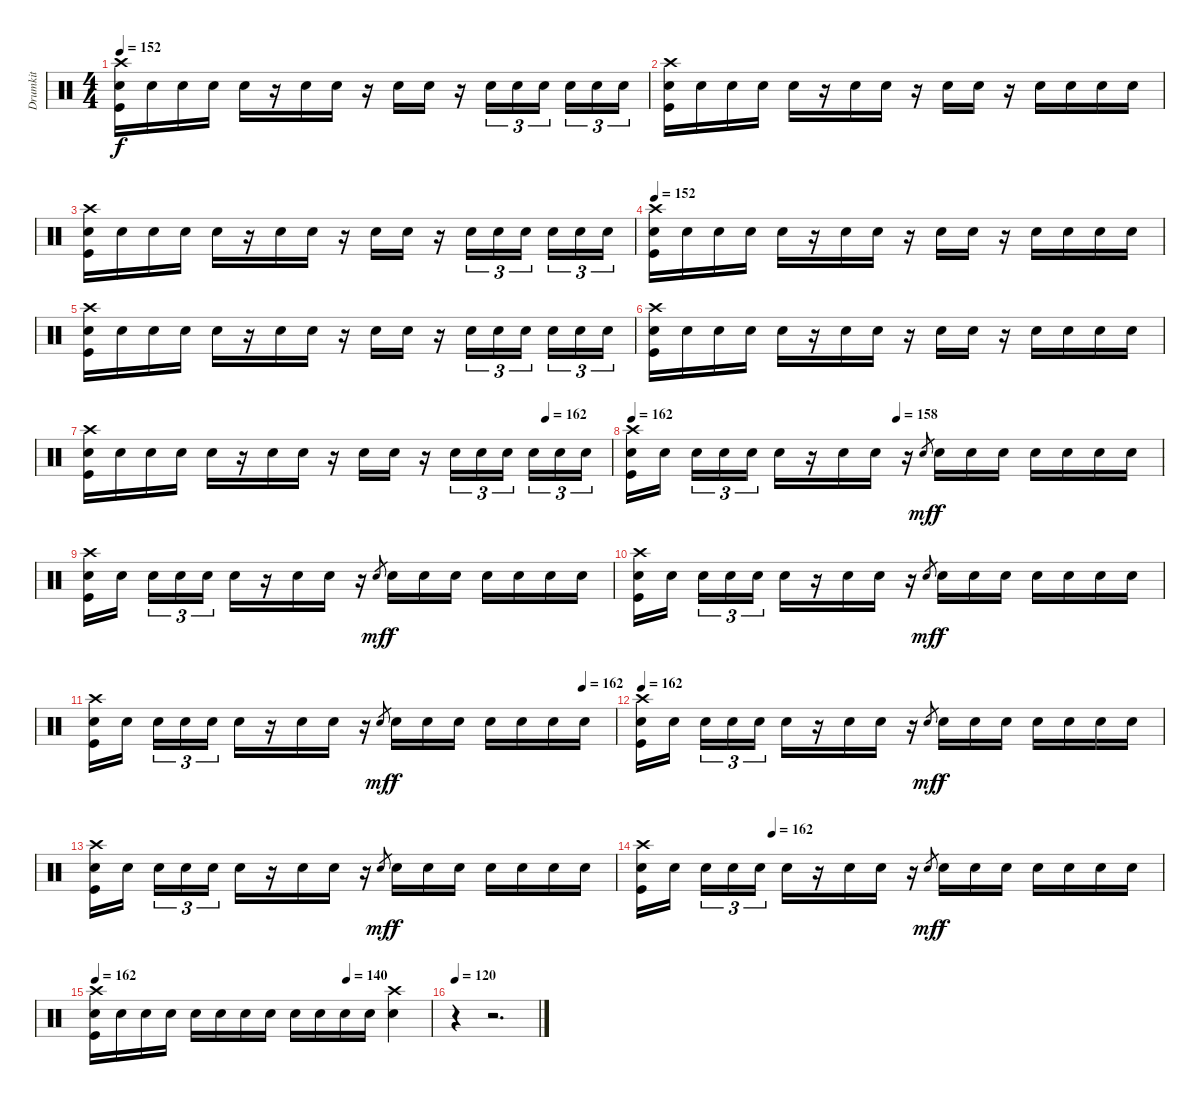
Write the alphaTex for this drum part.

\track ("Drumkit" "Drumkit") {instrument percussion}
\staff {score}
\articulation defaults
\ts (4 4)
\tempo 152
\clef neutral
\ks c
("Crash high (hit)" "Snare (hit) 2" "Kick (hit)").16{dy f} "Snare (hit) 2".16 "Snare (hit) 2".16 "Snare (hit) 2".16 "Snare (hit) 2".16 r.16 "Snare (hit) 2".16 "Snare (hit) 2".16 r.16 "Snare (hit) 2".16 "Snare (hit) 2".16 r.16 "Snare (hit) 2".16{tu (3 2)} "Snare (hit) 2".16{tu (3 2)} "Snare (hit) 2".16{tu (3 2)} "Snare (hit) 2".16{tu (3 2)} "Snare (hit) 2".16{tu (3 2)} "Snare (hit) 2".16{tu (3 2)} |
("Crash high (hit)" "Snare (hit) 2" "Kick (hit)").16 "Snare (hit) 2".16 "Snare (hit) 2".16 "Snare (hit) 2".16 "Snare (hit) 2".16 r.16 "Snare (hit) 2".16 "Snare (hit) 2".16 r.16 "Snare (hit) 2".16 "Snare (hit) 2".16 r.16 "Snare (hit) 2".16 "Snare (hit) 2".16 "Snare (hit) 2".16 "Snare (hit) 2".16 |
("Crash high (hit)" "Snare (hit) 2" "Kick (hit)").16 "Snare (hit) 2".16 "Snare (hit) 2".16 "Snare (hit) 2".16 "Snare (hit) 2".16 r.16 "Snare (hit) 2".16 "Snare (hit) 2".16 r.16 "Snare (hit) 2".16 "Snare (hit) 2".16 r.16 "Snare (hit) 2".16{tu (3 2)} "Snare (hit) 2".16{tu (3 2)} "Snare (hit) 2".16{tu (3 2)} "Snare (hit) 2".16{tu (3 2)} "Snare (hit) 2".16{tu (3 2)} "Snare (hit) 2".16{tu (3 2)} |
\tempo 152
("Crash high (hit)" "Snare (hit) 2" "Kick (hit)").16 "Snare (hit) 2".16 "Snare (hit) 2".16 "Snare (hit) 2".16 "Snare (hit) 2".16 r.16 "Snare (hit) 2".16 "Snare (hit) 2".16 r.16 "Snare (hit) 2".16 "Snare (hit) 2".16 r.16 "Snare (hit) 2".16 "Snare (hit) 2".16 "Snare (hit) 2".16 "Snare (hit) 2".16 |
("Crash high (hit)" "Snare (hit) 2" "Kick (hit)").16 "Snare (hit) 2".16 "Snare (hit) 2".16 "Snare (hit) 2".16 "Snare (hit) 2".16 r.16 "Snare (hit) 2".16 "Snare (hit) 2".16 r.16 "Snare (hit) 2".16 "Snare (hit) 2".16 r.16 "Snare (hit) 2".16{tu (3 2)} "Snare (hit) 2".16{tu (3 2)} "Snare (hit) 2".16{tu (3 2)} "Snare (hit) 2".16{tu (3 2)} "Snare (hit) 2".16{tu (3 2)} "Snare (hit) 2".16{tu (3 2)} |
("Crash high (hit)" "Snare (hit) 2" "Kick (hit)").16 "Snare (hit) 2".16 "Snare (hit) 2".16 "Snare (hit) 2".16 "Snare (hit) 2".16 r.16 "Snare (hit) 2".16 "Snare (hit) 2".16 r.16 "Snare (hit) 2".16 "Snare (hit) 2".16 r.16 "Snare (hit) 2".16 "Snare (hit) 2".16 "Snare (hit) 2".16 "Snare (hit) 2".16 |
\tempo (162 0.875)
("Crash high (hit)" "Snare (hit) 2" "Kick (hit)").16 "Snare (hit) 2".16 "Snare (hit) 2".16 "Snare (hit) 2".16 "Snare (hit) 2".16 r.16 "Snare (hit) 2".16 "Snare (hit) 2".16 r.16 "Snare (hit) 2".16 "Snare (hit) 2".16 r.16 "Snare (hit) 2".16{tu (3 2)} "Snare (hit) 2".16{tu (3 2)} "Snare (hit) 2".16{tu (3 2)} "Snare (hit) 2".16{tu (3 2)} "Snare (hit) 2".16{tu (3 2)} "Snare (hit) 2".16{tu (3 2)} |
\tempo 162
\tempo (158 0.5)
("Crash high (hit)" "Snare (hit) 2" "Kick (hit)").16 "Snare (hit) 2".16 "Snare (hit) 2".16{tu (3 2)} "Snare (hit) 2".16{tu (3 2)} "Snare (hit) 2".16{tu (3 2)} "Snare (hit) 2".16 r.16 "Snare (hit) 2".16 "Snare (hit) 2".16 r.16 "Snare (hit)".8{gr dy mf} "Snare (hit) 2".16{dy f} "Snare (hit) 2".16 "Snare (hit) 2".16 "Snare (hit) 2".16 "Snare (hit) 2".16 "Snare (hit) 2".16 "Snare (hit) 2".16 |
("Crash high (hit)" "Snare (hit) 2" "Kick (hit)").16 "Snare (hit) 2".16 "Snare (hit) 2".16{tu (3 2)} "Snare (hit) 2".16{tu (3 2)} "Snare (hit) 2".16{tu (3 2)} "Snare (hit) 2".16 r.16 "Snare (hit) 2".16 "Snare (hit) 2".16 r.16 "Snare (hit)".8{gr dy mf} "Snare (hit) 2".16{dy f} "Snare (hit) 2".16 "Snare (hit) 2".16 "Snare (hit) 2".16 "Snare (hit) 2".16 "Snare (hit) 2".16 "Snare (hit) 2".16 |
("Crash high (hit)" "Snare (hit) 2" "Kick (hit)").16 "Snare (hit) 2".16 "Snare (hit) 2".16{tu (3 2)} "Snare (hit) 2".16{tu (3 2)} "Snare (hit) 2".16{tu (3 2)} "Snare (hit) 2".16 r.16 "Snare (hit) 2".16 "Snare (hit) 2".16 r.16 "Snare (hit)".8{gr dy mf} "Snare (hit) 2".16{dy f} "Snare (hit) 2".16 "Snare (hit) 2".16 "Snare (hit) 2".16 "Snare (hit) 2".16 "Snare (hit) 2".16 "Snare (hit) 2".16 |
\tempo (162 0.9375)
("Crash high (hit)" "Snare (hit) 2" "Kick (hit)").16 "Snare (hit) 2".16 "Snare (hit) 2".16{tu (3 2)} "Snare (hit) 2".16{tu (3 2)} "Snare (hit) 2".16{tu (3 2)} "Snare (hit) 2".16 r.16 "Snare (hit) 2".16 "Snare (hit) 2".16 r.16 "Snare (hit)".8{gr dy mf} "Snare (hit) 2".16{dy f} "Snare (hit) 2".16 "Snare (hit) 2".16 "Snare (hit) 2".16 "Snare (hit) 2".16 "Snare (hit) 2".16 "Snare (hit) 2".16 |
\tempo 162
("Crash high (hit)" "Snare (hit) 2" "Kick (hit)").16 "Snare (hit) 2".16 "Snare (hit) 2".16{tu (3 2)} "Snare (hit) 2".16{tu (3 2)} "Snare (hit) 2".16{tu (3 2)} "Snare (hit) 2".16 r.16 "Snare (hit) 2".16 "Snare (hit) 2".16 r.16 "Snare (hit)".8{gr dy mf} "Snare (hit) 2".16{dy f} "Snare (hit) 2".16 "Snare (hit) 2".16 "Snare (hit) 2".16 "Snare (hit) 2".16 "Snare (hit) 2".16 "Snare (hit) 2".16 |
("Crash high (hit)" "Snare (hit) 2" "Kick (hit)").16 "Snare (hit) 2".16 "Snare (hit) 2".16{tu (3 2)} "Snare (hit) 2".16{tu (3 2)} "Snare (hit) 2".16{tu (3 2)} "Snare (hit) 2".16 r.16 "Snare (hit) 2".16 "Snare (hit) 2".16 r.16 "Snare (hit)".8{gr dy mf} "Snare (hit) 2".16{dy f} "Snare (hit) 2".16 "Snare (hit) 2".16 "Snare (hit) 2".16 "Snare (hit) 2".16 "Snare (hit) 2".16 "Snare (hit) 2".16 |
\tempo (162 0.25)
("Crash high (hit)" "Snare (hit) 2" "Kick (hit)").16 "Snare (hit) 2".16 "Snare (hit) 2".16{tu (3 2)} "Snare (hit) 2".16{tu (3 2)} "Snare (hit) 2".16{tu (3 2)} "Snare (hit) 2".16 r.16 "Snare (hit) 2".16 "Snare (hit) 2".16 r.16 "Snare (hit)".8{gr dy mf} "Snare (hit) 2".16{dy f} "Snare (hit) 2".16 "Snare (hit) 2".16 "Snare (hit) 2".16 "Snare (hit) 2".16 "Snare (hit) 2".16 "Snare (hit) 2".16 |
\tempo 162
\tempo (140 0.75)
("Crash high (hit)" "Snare (hit) 2" "Kick (hit)").16 "Snare (hit) 2".16 "Snare (hit) 2".16 "Snare (hit) 2".16 "Snare (hit) 2".16 "Snare (hit) 2".16 "Snare (hit) 2".16 "Snare (hit) 2".16 "Snare (hit) 2".16 "Snare (hit) 2".16 "Snare (hit) 2".16 "Snare (hit) 2".16 ("Crash high (hit)" "Snare (hit) 2").4 |
\tempo 120
r.4 r.2{d}
